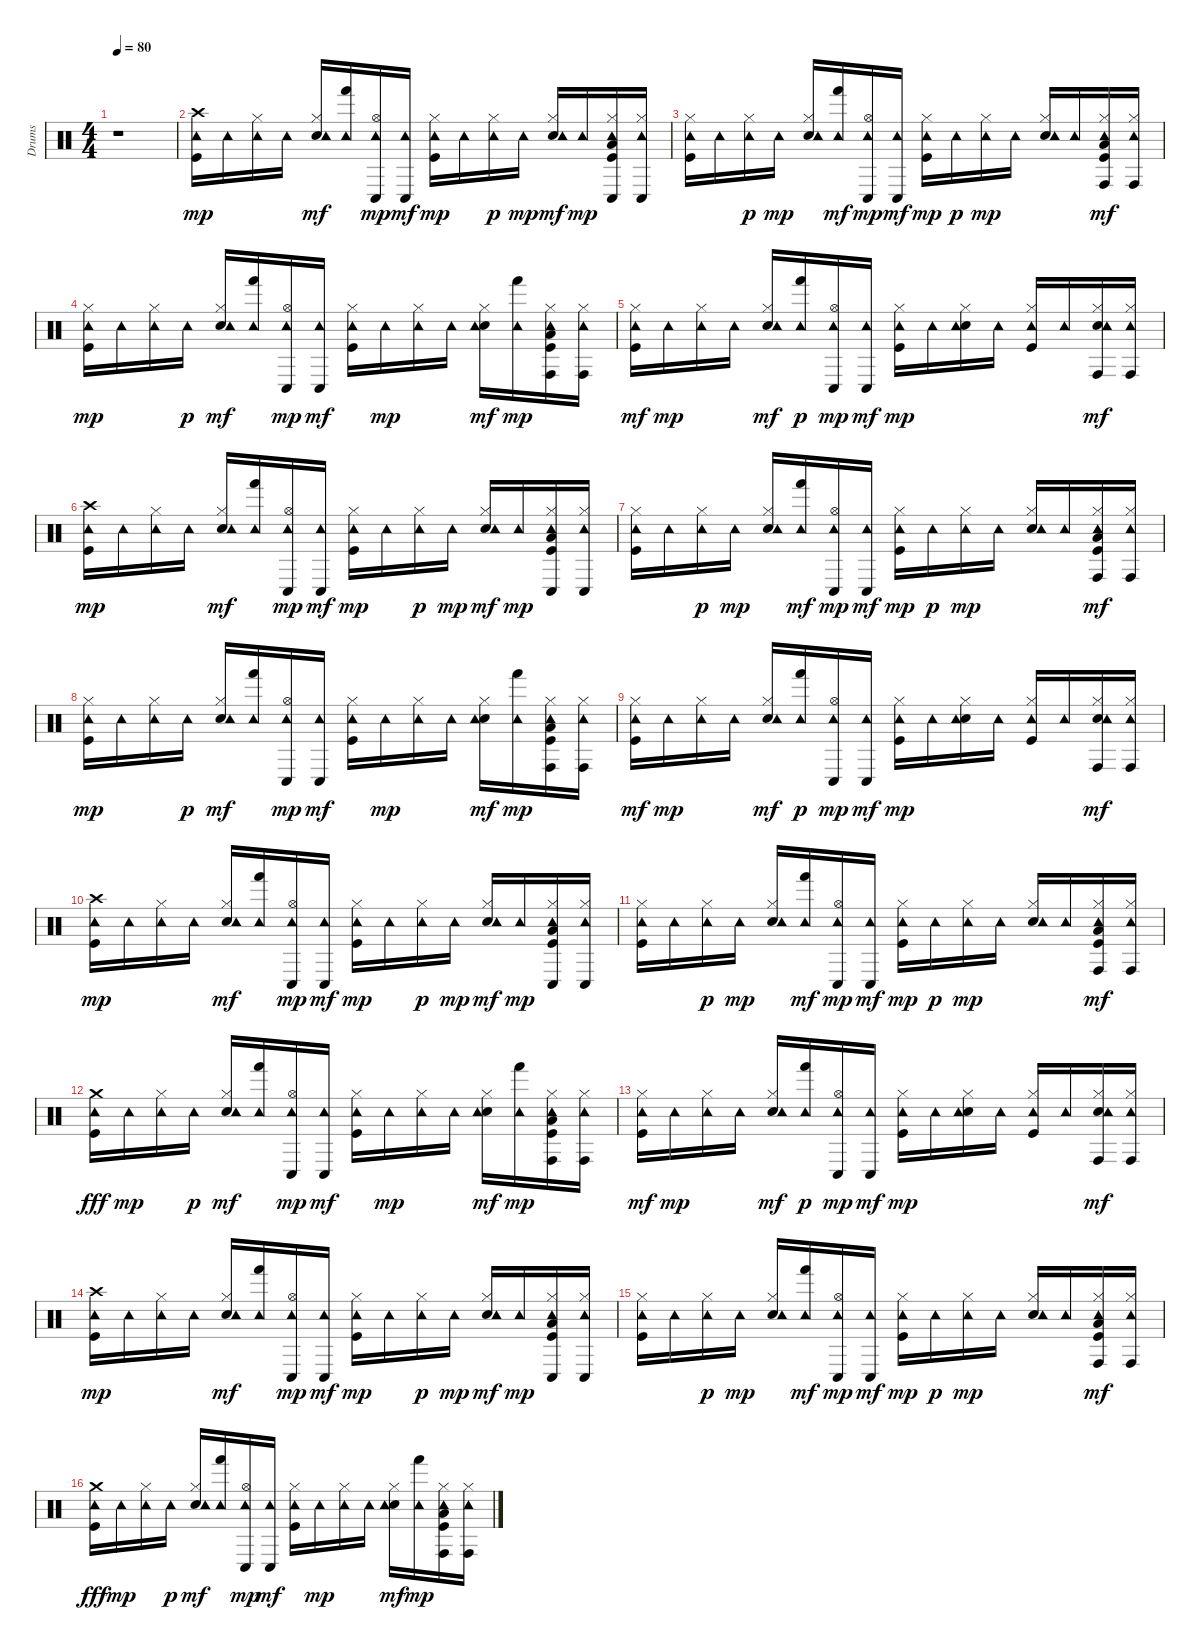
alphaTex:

\track ("Drums" "Drums") {instrument percussion}
\staff {score}
\articulation defaults
\ts (4 4)
\tempo 80
\clef neutral
\ks c
r.1{dy mp} |
("Kick (hit)" "Crash high (hit)" "Tambourine (hit)").16 "Tambourine (hit)".16 ("Hi-Hat (closed)" "Tambourine (hit)").16 "Tambourine (hit)".16 ("Electric Snare (hit)" "Hi-Hat (closed)" "Tambourine (hit)").16{dy mf} ("Tambourine (hit)" "Hand (hit)").16 ("Hi-Hat (open)" "Tambourine (hit)" "Conga low (hit)").16{dy mp} ("Tambourine (hit)" "Conga low (hit)").16{dy mf} ("Kick (hit)" "Hi-Hat (closed)" "Tambourine (hit)").16{dy mp} "Tambourine (hit)".16 ("Hi-Hat (closed)" "Tambourine (hit)").16{dy p} "Tambourine (hit)".16{dy mp} ("Electric Snare (hit)" "Hi-Hat (closed)" "Tambourine (hit)").16{dy mf} "Tambourine (hit)".16{dy mp} ("Kick (hit)" "Hi-Hat (closed)" "Low Tom (hit)" "Tambourine (hit)" "Conga low (hit)").16 ("Hi-Hat (closed)" "Tambourine (hit)" "Conga low (hit)").16 |
("Kick (hit)" "Hi-Hat (closed)" "Tambourine (hit)").16 "Tambourine (hit)".16 ("Hi-Hat (closed)" "Tambourine (hit)").16{dy p} "Tambourine (hit)".16{dy mp} ("Electric Snare (hit)" "Hi-Hat (closed)" "Tambourine (hit)").16 ("Tambourine (hit)" "Hand (hit)").16{dy mf} ("Hi-Hat (open)" "Tambourine (hit)" "Conga low (hit)").16{dy mp} ("Tambourine (hit)" "Conga low (hit)").16{dy mf} ("Kick (hit)" "Hi-Hat (closed)" "Tambourine (hit)").16{dy mp} "Tambourine (hit)".16{dy p} ("Hi-Hat (closed)" "Tambourine (hit)").16{dy mp} "Tambourine (hit)".16 ("Electric Snare (hit)" "Hi-Hat (closed)" "Tambourine (hit)").16 "Tambourine (hit)".16 ("Kick (hit)" "Hi-Hat (closed)" "Low Tom (hit)" "Tambourine (hit)" "Conga high (hit)").16{dy mf} ("Hi-Hat (closed)" "Tambourine (hit)" "Conga high (hit)").16 |
("Kick (hit)" "Hi-Hat (closed)" "Tambourine (hit)").16{dy mp} "Tambourine (hit)".16 ("Hi-Hat (closed)" "Tambourine (hit)").16 "Tambourine (hit)".16{dy p} ("Electric Snare (hit)" "Hi-Hat (closed)" "Tambourine (hit)").16{dy mf} ("Tambourine (hit)" "Hand (hit)").16 ("Hi-Hat (open)" "Tambourine (hit)" "Conga low (hit)").16{dy mp} ("Tambourine (hit)" "Conga low (hit)").16{dy mf} ("Kick (hit)" "Hi-Hat (closed)" "Tambourine (hit)").16 "Tambourine (hit)".16{dy mp} ("Hi-Hat (closed)" "Tambourine (hit)").16 "Tambourine (hit)".16 ("Electric Snare (hit)" "Hi-Hat (closed)" "Tambourine (hit)").16{dy mf} ("Tambourine (hit)" "Hand (hit)").16{dy mp} ("Kick (hit)" "Hi-Hat (closed)" "Low Tom (hit)" "Tambourine (hit)" "Conga high (hit)").16 ("Hi-Hat (closed)" "Tambourine (hit)" "Conga high (hit)").16 |
("Kick (hit)" "Hi-Hat (closed)" "Tambourine (hit)").16{dy mf} "Tambourine (hit)".16{dy mp} ("Hi-Hat (closed)" "Tambourine (hit)").16 "Tambourine (hit)".16 ("Electric Snare (hit)" "Hi-Hat (closed)" "Tambourine (hit)").16{dy mf} ("Tambourine (hit)" "Hand (hit)").16{dy p} ("Hi-Hat (open)" "Tambourine (hit)" "Conga low (hit)").16{dy mp} ("Tambourine (hit)" "Conga low (hit)").16{dy mf} ("Kick (hit)" "Hi-Hat (closed)" "Tambourine (hit)").16{dy mp} "Tambourine (hit)".16 ("Electric Snare (hit)" "Hi-Hat (closed)" "Tambourine (hit)").16 "Tambourine (hit)".16 ("Kick (hit)" "Hi-Hat (closed)" "Tambourine (hit)").16 "Tambourine (hit)".16 ("Electric Snare (hit)" "Hi-Hat (closed)" "Tambourine (hit)" "Conga high (hit)").16{dy mf} ("Hi-Hat (closed)" "Tambourine (hit)" "Conga high (hit)").16 |
("Kick (hit)" "Crash high (hit)" "Tambourine (hit)").16{dy mp} "Tambourine (hit)".16 ("Hi-Hat (closed)" "Tambourine (hit)").16 "Tambourine (hit)".16 ("Electric Snare (hit)" "Hi-Hat (closed)" "Tambourine (hit)").16{dy mf} ("Tambourine (hit)" "Hand (hit)").16 ("Hi-Hat (open)" "Tambourine (hit)" "Conga low (hit)").16{dy mp} ("Tambourine (hit)" "Conga low (hit)").16{dy mf} ("Kick (hit)" "Hi-Hat (closed)" "Tambourine (hit)").16{dy mp} "Tambourine (hit)".16 ("Hi-Hat (closed)" "Tambourine (hit)").16{dy p} "Tambourine (hit)".16{dy mp} ("Electric Snare (hit)" "Hi-Hat (closed)" "Tambourine (hit)").16{dy mf} "Tambourine (hit)".16{dy mp} ("Kick (hit)" "Hi-Hat (closed)" "Low Tom (hit)" "Tambourine (hit)" "Conga low (hit)").16 ("Hi-Hat (closed)" "Tambourine (hit)" "Conga low (hit)").16 |
("Kick (hit)" "Hi-Hat (closed)" "Tambourine (hit)").16 "Tambourine (hit)".16 ("Hi-Hat (closed)" "Tambourine (hit)").16{dy p} "Tambourine (hit)".16{dy mp} ("Electric Snare (hit)" "Hi-Hat (closed)" "Tambourine (hit)").16 ("Tambourine (hit)" "Hand (hit)").16{dy mf} ("Hi-Hat (open)" "Tambourine (hit)" "Conga low (hit)").16{dy mp} ("Tambourine (hit)" "Conga low (hit)").16{dy mf} ("Kick (hit)" "Hi-Hat (closed)" "Tambourine (hit)").16{dy mp} "Tambourine (hit)".16{dy p} ("Hi-Hat (closed)" "Tambourine (hit)").16{dy mp} "Tambourine (hit)".16 ("Electric Snare (hit)" "Hi-Hat (closed)" "Tambourine (hit)").16 "Tambourine (hit)".16 ("Kick (hit)" "Hi-Hat (closed)" "Low Tom (hit)" "Tambourine (hit)" "Conga high (hit)").16{dy mf} ("Hi-Hat (closed)" "Tambourine (hit)" "Conga high (hit)").16 |
("Kick (hit)" "Hi-Hat (closed)" "Tambourine (hit)").16{dy mp} "Tambourine (hit)".16 ("Hi-Hat (closed)" "Tambourine (hit)").16 "Tambourine (hit)".16{dy p} ("Electric Snare (hit)" "Hi-Hat (closed)" "Tambourine (hit)").16{dy mf} ("Tambourine (hit)" "Hand (hit)").16 ("Hi-Hat (open)" "Tambourine (hit)" "Conga low (hit)").16{dy mp} ("Tambourine (hit)" "Conga low (hit)").16{dy mf} ("Kick (hit)" "Hi-Hat (closed)" "Tambourine (hit)").16 "Tambourine (hit)".16{dy mp} ("Hi-Hat (closed)" "Tambourine (hit)").16 "Tambourine (hit)".16 ("Electric Snare (hit)" "Hi-Hat (closed)" "Tambourine (hit)").16{dy mf} ("Tambourine (hit)" "Hand (hit)").16{dy mp} ("Kick (hit)" "Hi-Hat (closed)" "Low Tom (hit)" "Tambourine (hit)" "Conga high (hit)").16 ("Hi-Hat (closed)" "Tambourine (hit)" "Conga high (hit)").16 |
("Kick (hit)" "Hi-Hat (closed)" "Tambourine (hit)").16{dy mf} "Tambourine (hit)".16{dy mp} ("Hi-Hat (closed)" "Tambourine (hit)").16 "Tambourine (hit)".16 ("Electric Snare (hit)" "Hi-Hat (closed)" "Tambourine (hit)").16{dy mf} ("Tambourine (hit)" "Hand (hit)").16{dy p} ("Hi-Hat (open)" "Tambourine (hit)" "Conga low (hit)").16{dy mp} ("Tambourine (hit)" "Conga low (hit)").16{dy mf} ("Kick (hit)" "Hi-Hat (closed)" "Tambourine (hit)").16{dy mp} "Tambourine (hit)".16 ("Electric Snare (hit)" "Hi-Hat (closed)" "Tambourine (hit)").16 "Tambourine (hit)".16 ("Kick (hit)" "Hi-Hat (closed)" "Tambourine (hit)").16 "Tambourine (hit)".16 ("Electric Snare (hit)" "Hi-Hat (closed)" "Tambourine (hit)" "Conga high (hit)").16{dy mf} ("Hi-Hat (closed)" "Tambourine (hit)" "Conga high (hit)").16 |
("Kick (hit)" "Crash high (hit)" "Tambourine (hit)").16{dy mp} "Tambourine (hit)".16 ("Hi-Hat (closed)" "Tambourine (hit)").16 "Tambourine (hit)".16 ("Electric Snare (hit)" "Hi-Hat (closed)" "Tambourine (hit)").16{dy mf} ("Tambourine (hit)" "Hand (hit)").16 ("Hi-Hat (open)" "Tambourine (hit)" "Conga low (hit)").16{dy mp} ("Tambourine (hit)" "Conga low (hit)").16{dy mf} ("Kick (hit)" "Hi-Hat (closed)" "Tambourine (hit)").16{dy mp} "Tambourine (hit)".16 ("Hi-Hat (closed)" "Tambourine (hit)").16{dy p} "Tambourine (hit)".16{dy mp} ("Electric Snare (hit)" "Hi-Hat (closed)" "Tambourine (hit)").16{dy mf} "Tambourine (hit)".16{dy mp} ("Kick (hit)" "Hi-Hat (closed)" "Low Tom (hit)" "Tambourine (hit)" "Conga low (hit)").16 ("Hi-Hat (closed)" "Tambourine (hit)" "Conga low (hit)").16 |
("Kick (hit)" "Hi-Hat (closed)" "Tambourine (hit)").16 "Tambourine (hit)".16 ("Hi-Hat (closed)" "Tambourine (hit)").16{dy p} "Tambourine (hit)".16{dy mp} ("Electric Snare (hit)" "Hi-Hat (closed)" "Tambourine (hit)").16 ("Tambourine (hit)" "Hand (hit)").16{dy mf} ("Hi-Hat (open)" "Tambourine (hit)" "Conga low (hit)").16{dy mp} ("Tambourine (hit)" "Conga low (hit)").16{dy mf} ("Kick (hit)" "Hi-Hat (closed)" "Tambourine (hit)").16{dy mp} "Tambourine (hit)".16{dy p} ("Hi-Hat (closed)" "Tambourine (hit)").16{dy mp} "Tambourine (hit)".16 ("Electric Snare (hit)" "Hi-Hat (closed)" "Tambourine (hit)").16 "Tambourine (hit)".16 ("Kick (hit)" "Hi-Hat (closed)" "Low Tom (hit)" "Tambourine (hit)" "Conga high (hit)").16{dy mf} ("Hi-Hat (closed)" "Tambourine (hit)" "Conga high (hit)").16 |
("Kick (hit)" "Tambourine (hit)" "Crash medium (hit)").16{dy fff} "Tambourine (hit)".16{dy mp} ("Hi-Hat (closed)" "Tambourine (hit)").16 "Tambourine (hit)".16{dy p} ("Electric Snare (hit)" "Hi-Hat (closed)" "Tambourine (hit)").16{dy mf} ("Tambourine (hit)" "Hand (hit)").16 ("Hi-Hat (open)" "Tambourine (hit)" "Conga low (hit)").16{dy mp} ("Tambourine (hit)" "Conga low (hit)").16{dy mf} ("Kick (hit)" "Hi-Hat (closed)" "Tambourine (hit)").16 "Tambourine (hit)".16{dy mp} ("Hi-Hat (closed)" "Tambourine (hit)").16 "Tambourine (hit)".16 ("Electric Snare (hit)" "Hi-Hat (closed)" "Tambourine (hit)").16{dy mf} ("Tambourine (hit)" "Hand (hit)").16{dy mp} ("Kick (hit)" "Hi-Hat (closed)" "Low Tom (hit)" "Tambourine (hit)" "Conga high (hit)").16 ("Hi-Hat (closed)" "Tambourine (hit)" "Conga high (hit)").16 |
("Kick (hit)" "Hi-Hat (closed)" "Tambourine (hit)").16{dy mf} "Tambourine (hit)".16{dy mp} ("Hi-Hat (closed)" "Tambourine (hit)").16 "Tambourine (hit)".16 ("Electric Snare (hit)" "Hi-Hat (closed)" "Tambourine (hit)").16{dy mf} ("Tambourine (hit)" "Hand (hit)").16{dy p} ("Hi-Hat (open)" "Tambourine (hit)" "Conga low (hit)").16{dy mp} ("Tambourine (hit)" "Conga low (hit)").16{dy mf} ("Kick (hit)" "Hi-Hat (closed)" "Tambourine (hit)").16{dy mp} "Tambourine (hit)".16 ("Electric Snare (hit)" "Hi-Hat (closed)" "Tambourine (hit)").16 "Tambourine (hit)".16 ("Kick (hit)" "Hi-Hat (closed)" "Tambourine (hit)").16 "Tambourine (hit)".16 ("Electric Snare (hit)" "Hi-Hat (closed)" "Tambourine (hit)" "Conga high (hit)").16{dy mf} ("Hi-Hat (closed)" "Tambourine (hit)" "Conga high (hit)").16 |
("Kick (hit)" "Crash high (hit)" "Tambourine (hit)").16{dy mp} "Tambourine (hit)".16 ("Hi-Hat (closed)" "Tambourine (hit)").16 "Tambourine (hit)".16 ("Electric Snare (hit)" "Hi-Hat (closed)" "Tambourine (hit)").16{dy mf} ("Tambourine (hit)" "Hand (hit)").16 ("Hi-Hat (open)" "Tambourine (hit)" "Conga low (hit)").16{dy mp} ("Tambourine (hit)" "Conga low (hit)").16{dy mf} ("Kick (hit)" "Hi-Hat (closed)" "Tambourine (hit)").16{dy mp} "Tambourine (hit)".16 ("Hi-Hat (closed)" "Tambourine (hit)").16{dy p} "Tambourine (hit)".16{dy mp} ("Electric Snare (hit)" "Hi-Hat (closed)" "Tambourine (hit)").16{dy mf} "Tambourine (hit)".16{dy mp} ("Kick (hit)" "Hi-Hat (closed)" "Low Tom (hit)" "Tambourine (hit)" "Conga low (hit)").16 ("Hi-Hat (closed)" "Tambourine (hit)" "Conga low (hit)").16 |
("Kick (hit)" "Hi-Hat (closed)" "Tambourine (hit)").16 "Tambourine (hit)".16 ("Hi-Hat (closed)" "Tambourine (hit)").16{dy p} "Tambourine (hit)".16{dy mp} ("Electric Snare (hit)" "Hi-Hat (closed)" "Tambourine (hit)").16 ("Tambourine (hit)" "Hand (hit)").16{dy mf} ("Hi-Hat (open)" "Tambourine (hit)" "Conga low (hit)").16{dy mp} ("Tambourine (hit)" "Conga low (hit)").16{dy mf} ("Kick (hit)" "Hi-Hat (closed)" "Tambourine (hit)").16{dy mp} "Tambourine (hit)".16{dy p} ("Hi-Hat (closed)" "Tambourine (hit)").16{dy mp} "Tambourine (hit)".16 ("Electric Snare (hit)" "Hi-Hat (closed)" "Tambourine (hit)").16 "Tambourine (hit)".16 ("Kick (hit)" "Hi-Hat (closed)" "Low Tom (hit)" "Tambourine (hit)" "Conga high (hit)").16{dy mf} ("Hi-Hat (closed)" "Tambourine (hit)" "Conga high (hit)").16 |
("Kick (hit)" "Tambourine (hit)" "Crash medium (hit)").16{dy fff} "Tambourine (hit)".16{dy mp} ("Hi-Hat (closed)" "Tambourine (hit)").16 "Tambourine (hit)".16{dy p} ("Electric Snare (hit)" "Hi-Hat (closed)" "Tambourine (hit)").16{dy mf} ("Tambourine (hit)" "Hand (hit)").16 ("Hi-Hat (open)" "Tambourine (hit)" "Conga low (hit)").16{dy mp} ("Tambourine (hit)" "Conga low (hit)").16{dy mf} ("Kick (hit)" "Hi-Hat (closed)" "Tambourine (hit)").16 "Tambourine (hit)".16{dy mp} ("Hi-Hat (closed)" "Tambourine (hit)").16 "Tambourine (hit)".16 ("Electric Snare (hit)" "Hi-Hat (closed)" "Tambourine (hit)").16{dy mf} ("Tambourine (hit)" "Hand (hit)").16{dy mp} ("Kick (hit)" "Hi-Hat (closed)" "Low Tom (hit)" "Tambourine (hit)" "Conga high (hit)").16 ("Hi-Hat (closed)" "Tambourine (hit)" "Conga high (hit)").16
